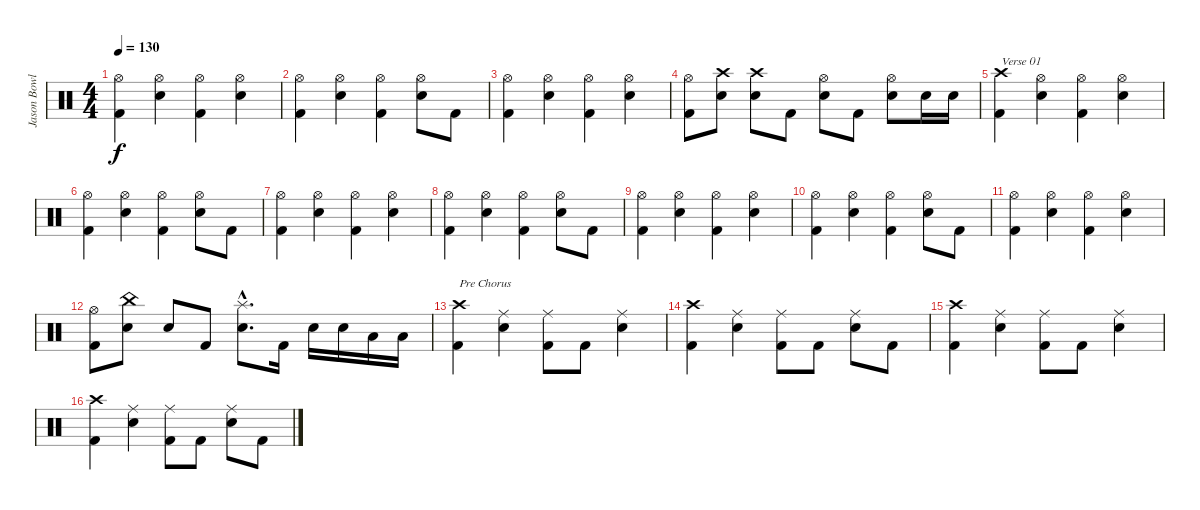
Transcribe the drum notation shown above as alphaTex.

\track ("Jason Bowld" "Jason Bowl") {instrument percussion}
\staff {score}
\articulation defaults
\ts (4 4)
\tempo 130
\clef neutral
\ks c
("Hi-Hat (open)" "Kick (hit) 2").4{dy f} ("Hi-Hat (open)" "Snare (hit) 2").4 ("Hi-Hat (open)" "Kick (hit) 2").4 ("Hi-Hat (open)" "Snare (hit) 2").4 |
("Hi-Hat (open)" "Kick (hit) 2").4 ("Hi-Hat (open)" "Snare (hit) 2").4 ("Hi-Hat (open)" "Kick (hit) 2").4 ("Hi-Hat (open)" "Snare (hit) 2").8 "Kick (hit) 2".8 |
("Hi-Hat (open)" "Kick (hit) 2").4 ("Hi-Hat (open)" "Snare (hit) 2").4 ("Hi-Hat (open)" "Kick (hit) 2").4 ("Hi-Hat (open)" "Snare (hit) 2").4 |
("Hi-Hat (open)" "Kick (hit) 2").8 ("Crash high (hit)" "Snare (hit) 2").8 ("Crash high (hit)" "Snare (hit) 2").8 "Kick (hit) 2".8 ("Hi-Hat (open)" "Snare (hit) 2").8 "Kick (hit) 2".8 ("Hi-Hat (open)" "Snare (hit) 2").8 "Snare (hit) 2".16 "Snare (hit) 2".16 |
("Crash high (hit)" "Kick (hit) 2").4{txt "Verse 01"} ("Hi-Hat (open)" "Snare (hit) 2").4 ("Hi-Hat (open)" "Kick (hit) 2").4 ("Hi-Hat (open)" "Snare (hit) 2").4 |
("Hi-Hat (open)" "Kick (hit) 2").4 ("Hi-Hat (open)" "Snare (hit) 2").4 ("Hi-Hat (open)" "Kick (hit) 2").4 ("Hi-Hat (open)" "Snare (hit) 2").8 "Kick (hit) 2".8 |
("Hi-Hat (open)" "Kick (hit) 2").4 ("Hi-Hat (open)" "Snare (hit) 2").4 ("Hi-Hat (open)" "Kick (hit) 2").4 ("Hi-Hat (open)" "Snare (hit) 2").4 |
("Hi-Hat (open)" "Kick (hit) 2").4 ("Hi-Hat (open)" "Snare (hit) 2").4 ("Hi-Hat (open)" "Kick (hit) 2").4 ("Hi-Hat (open)" "Snare (hit) 2").8 "Kick (hit) 2".8 |
("Hi-Hat (open)" "Kick (hit) 2").4 ("Hi-Hat (open)" "Snare (hit) 2").4 ("Hi-Hat (open)" "Kick (hit) 2").4 ("Hi-Hat (open)" "Snare (hit) 2").4 |
("Hi-Hat (open)" "Kick (hit) 2").4 ("Hi-Hat (open)" "Snare (hit) 2").4 ("Hi-Hat (open)" "Kick (hit) 2").4 ("Hi-Hat (open)" "Snare (hit) 2").8 "Kick (hit) 2".8 |
("Hi-Hat (open)" "Kick (hit) 2").4 ("Hi-Hat (open)" "Snare (hit) 2").4 ("Hi-Hat (open)" "Kick (hit) 2").4 ("Hi-Hat (open)" "Snare (hit) 2").4 |
("Hi-Hat (open)" "Kick (hit) 2").8 ("China (hit)" "Snare (hit) 2").8 "Snare (hit) 2".8 "Kick (hit) 2".8 ("Splash (hit)"{hac} "Snare (hit) 2").8{d} "Kick (hit) 2".16 "Snare (hit) 2".16 "Snare (hit) 2".16 "Low Tom (hit)".16 "Low Tom (hit)".16 |
("Crash high (hit)" "Kick (hit) 2").4{txt "Pre Chorus"} ("Ride (middle)" "Snare (hit) 2").4 ("Ride (middle)" "Kick (hit) 2").8 "Kick (hit) 2".8 ("Ride (middle)" "Snare (hit) 2").4 |
("Crash high (hit)" "Kick (hit) 2").4 ("Ride (middle)" "Snare (hit) 2").4 ("Ride (middle)" "Kick (hit) 2").8 "Kick (hit) 2".8 ("Ride (middle)" "Snare (hit) 2").8 "Kick (hit) 2".8 |
("Crash high (hit)" "Kick (hit) 2").4 ("Ride (middle)" "Snare (hit) 2").4 ("Ride (middle)" "Kick (hit) 2").8 "Kick (hit) 2".8 ("Ride (middle)" "Snare (hit) 2").4 |
("Crash high (hit)" "Kick (hit) 2").4 ("Ride (middle)" "Snare (hit) 2").4 ("Ride (middle)" "Kick (hit) 2").8 "Kick (hit) 2".8 ("Ride (middle)" "Snare (hit) 2").8 "Kick (hit) 2".8
